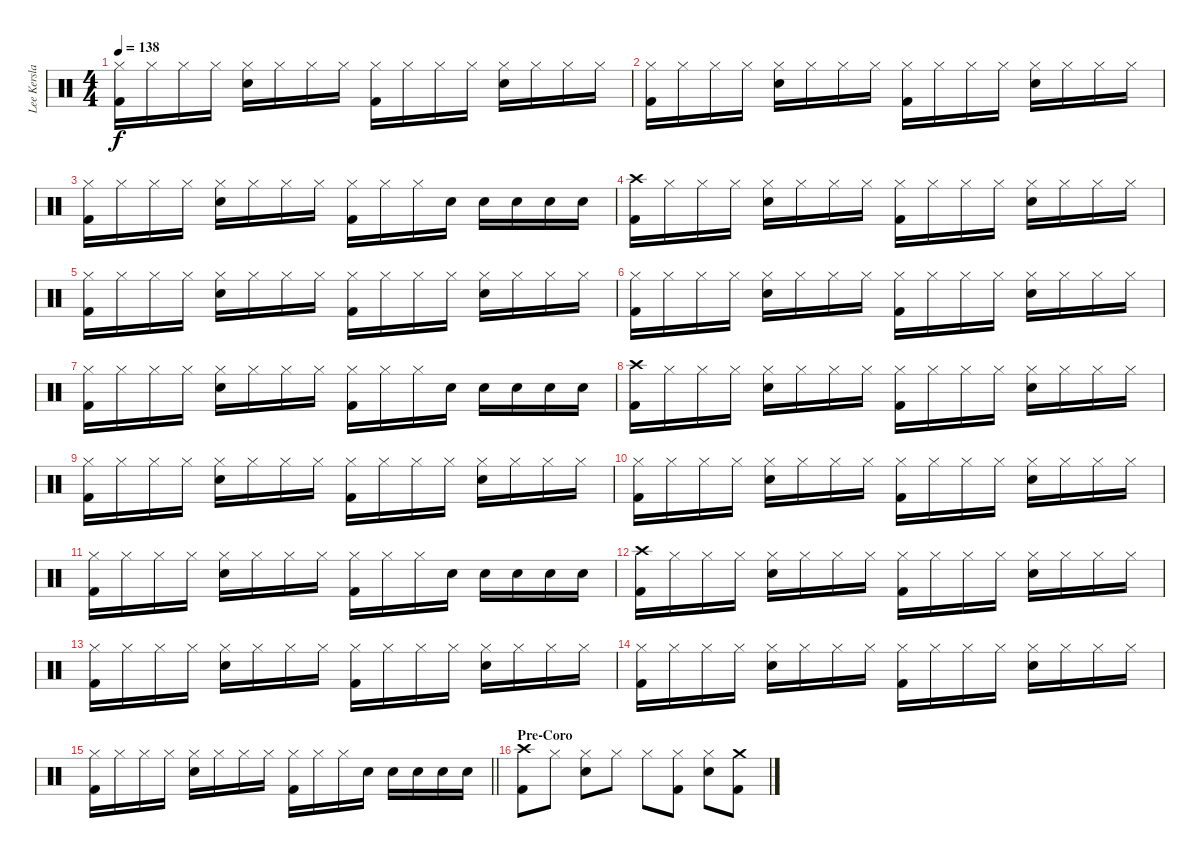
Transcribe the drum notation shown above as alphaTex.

\track ("Lee Kerslake" "Lee Kersla") {instrument percussion}
\staff {score}
\articulation defaults
\ts (4 4)
\tempo 138
\clef neutral
\ks c
("Hi-Hat (closed)" "Kick (hit) 2").16{dy f} "Hi-Hat (closed)".16 "Hi-Hat (closed)".16 "Hi-Hat (closed)".16 ("Hi-Hat (closed)" "Snare (hit) 2").16 "Hi-Hat (closed)".16 "Hi-Hat (closed)".16 "Hi-Hat (closed)".16 ("Hi-Hat (closed)" "Kick (hit) 2").16 "Hi-Hat (closed)".16 "Hi-Hat (closed)".16 "Hi-Hat (closed)".16 ("Hi-Hat (closed)" "Snare (hit) 2").16 "Hi-Hat (closed)".16 "Hi-Hat (closed)".16 "Hi-Hat (closed)".16 |
("Hi-Hat (closed)" "Kick (hit) 2").16 "Hi-Hat (closed)".16 "Hi-Hat (closed)".16 "Hi-Hat (closed)".16 ("Hi-Hat (closed)" "Snare (hit) 2").16 "Hi-Hat (closed)".16 "Hi-Hat (closed)".16 "Hi-Hat (closed)".16 ("Hi-Hat (closed)" "Kick (hit) 2").16 "Hi-Hat (closed)".16 "Hi-Hat (closed)".16 "Hi-Hat (closed)".16 ("Hi-Hat (closed)" "Snare (hit) 2").16 "Hi-Hat (closed)".16 "Hi-Hat (closed)".16 "Hi-Hat (closed)".16 |
("Hi-Hat (closed)" "Kick (hit) 2").16 "Hi-Hat (closed)".16 "Hi-Hat (closed)".16 "Hi-Hat (closed)".16 ("Hi-Hat (closed)" "Snare (hit) 2").16 "Hi-Hat (closed)".16 "Hi-Hat (closed)".16 "Hi-Hat (closed)".16 ("Hi-Hat (closed)" "Kick (hit) 2").16 "Hi-Hat (closed)".16 "Hi-Hat (closed)".16 "Snare (hit) 2".16 "Snare (hit) 2".16 "Snare (hit) 2".16 "Snare (hit) 2".16 "Snare (hit) 2".16 |
("Crash high (hit)" "Kick (hit) 2").16 "Hi-Hat (closed)".16 "Hi-Hat (closed)".16 "Hi-Hat (closed)".16 ("Hi-Hat (closed)" "Snare (hit) 2").16 "Hi-Hat (closed)".16 "Hi-Hat (closed)".16 "Hi-Hat (closed)".16 ("Hi-Hat (closed)" "Kick (hit) 2").16 "Hi-Hat (closed)".16 "Hi-Hat (closed)".16 "Hi-Hat (closed)".16 ("Hi-Hat (closed)" "Snare (hit) 2").16 "Hi-Hat (closed)".16 "Hi-Hat (closed)".16 "Hi-Hat (closed)".16 |
("Hi-Hat (closed)" "Kick (hit) 2").16 "Hi-Hat (closed)".16 "Hi-Hat (closed)".16 "Hi-Hat (closed)".16 ("Hi-Hat (closed)" "Snare (hit) 2").16 "Hi-Hat (closed)".16 "Hi-Hat (closed)".16 "Hi-Hat (closed)".16 ("Hi-Hat (closed)" "Kick (hit) 2").16 "Hi-Hat (closed)".16 "Hi-Hat (closed)".16 "Hi-Hat (closed)".16 ("Hi-Hat (closed)" "Snare (hit) 2").16 "Hi-Hat (closed)".16 "Hi-Hat (closed)".16 "Hi-Hat (closed)".16 |
("Hi-Hat (closed)" "Kick (hit) 2").16 "Hi-Hat (closed)".16 "Hi-Hat (closed)".16 "Hi-Hat (closed)".16 ("Hi-Hat (closed)" "Snare (hit) 2").16 "Hi-Hat (closed)".16 "Hi-Hat (closed)".16 "Hi-Hat (closed)".16 ("Hi-Hat (closed)" "Kick (hit) 2").16 "Hi-Hat (closed)".16 "Hi-Hat (closed)".16 "Hi-Hat (closed)".16 ("Hi-Hat (closed)" "Snare (hit) 2").16 "Hi-Hat (closed)".16 "Hi-Hat (closed)".16 "Hi-Hat (closed)".16 |
("Hi-Hat (closed)" "Kick (hit) 2").16 "Hi-Hat (closed)".16 "Hi-Hat (closed)".16 "Hi-Hat (closed)".16 ("Hi-Hat (closed)" "Snare (hit) 2").16 "Hi-Hat (closed)".16 "Hi-Hat (closed)".16 "Hi-Hat (closed)".16 ("Hi-Hat (closed)" "Kick (hit) 2").16 "Hi-Hat (closed)".16 "Hi-Hat (closed)".16 "Snare (hit) 2".16 "Snare (hit) 2".16 "Snare (hit) 2".16 "Snare (hit) 2".16 "Snare (hit) 2".16 |
("Crash high (hit)" "Kick (hit) 2").16 "Hi-Hat (closed)".16 "Hi-Hat (closed)".16 "Hi-Hat (closed)".16 ("Hi-Hat (closed)" "Snare (hit) 2").16 "Hi-Hat (closed)".16 "Hi-Hat (closed)".16 "Hi-Hat (closed)".16 ("Hi-Hat (closed)" "Kick (hit) 2").16 "Hi-Hat (closed)".16 "Hi-Hat (closed)".16 "Hi-Hat (closed)".16 ("Hi-Hat (closed)" "Snare (hit) 2").16 "Hi-Hat (closed)".16 "Hi-Hat (closed)".16 "Hi-Hat (closed)".16 |
("Hi-Hat (closed)" "Kick (hit) 2").16 "Hi-Hat (closed)".16 "Hi-Hat (closed)".16 "Hi-Hat (closed)".16 ("Hi-Hat (closed)" "Snare (hit) 2").16 "Hi-Hat (closed)".16 "Hi-Hat (closed)".16 "Hi-Hat (closed)".16 ("Hi-Hat (closed)" "Kick (hit) 2").16 "Hi-Hat (closed)".16 "Hi-Hat (closed)".16 "Hi-Hat (closed)".16 ("Hi-Hat (closed)" "Snare (hit) 2").16 "Hi-Hat (closed)".16 "Hi-Hat (closed)".16 "Hi-Hat (closed)".16 |
("Hi-Hat (closed)" "Kick (hit) 2").16 "Hi-Hat (closed)".16 "Hi-Hat (closed)".16 "Hi-Hat (closed)".16 ("Hi-Hat (closed)" "Snare (hit) 2").16 "Hi-Hat (closed)".16 "Hi-Hat (closed)".16 "Hi-Hat (closed)".16 ("Hi-Hat (closed)" "Kick (hit) 2").16 "Hi-Hat (closed)".16 "Hi-Hat (closed)".16 "Hi-Hat (closed)".16 ("Hi-Hat (closed)" "Snare (hit) 2").16 "Hi-Hat (closed)".16 "Hi-Hat (closed)".16 "Hi-Hat (closed)".16 |
("Hi-Hat (closed)" "Kick (hit) 2").16 "Hi-Hat (closed)".16 "Hi-Hat (closed)".16 "Hi-Hat (closed)".16 ("Hi-Hat (closed)" "Snare (hit) 2").16 "Hi-Hat (closed)".16 "Hi-Hat (closed)".16 "Hi-Hat (closed)".16 ("Hi-Hat (closed)" "Kick (hit) 2").16 "Hi-Hat (closed)".16 "Hi-Hat (closed)".16 "Snare (hit) 2".16 "Snare (hit) 2".16 "Snare (hit) 2".16 "Snare (hit) 2".16 "Snare (hit) 2".16 |
("Crash high (hit)" "Kick (hit) 2").16 "Hi-Hat (closed)".16 "Hi-Hat (closed)".16 "Hi-Hat (closed)".16 ("Hi-Hat (closed)" "Snare (hit) 2").16 "Hi-Hat (closed)".16 "Hi-Hat (closed)".16 "Hi-Hat (closed)".16 ("Hi-Hat (closed)" "Kick (hit) 2").16 "Hi-Hat (closed)".16 "Hi-Hat (closed)".16 "Hi-Hat (closed)".16 ("Hi-Hat (closed)" "Snare (hit) 2").16 "Hi-Hat (closed)".16 "Hi-Hat (closed)".16 "Hi-Hat (closed)".16 |
("Hi-Hat (closed)" "Kick (hit) 2").16 "Hi-Hat (closed)".16 "Hi-Hat (closed)".16 "Hi-Hat (closed)".16 ("Hi-Hat (closed)" "Snare (hit) 2").16 "Hi-Hat (closed)".16 "Hi-Hat (closed)".16 "Hi-Hat (closed)".16 ("Hi-Hat (closed)" "Kick (hit) 2").16 "Hi-Hat (closed)".16 "Hi-Hat (closed)".16 "Hi-Hat (closed)".16 ("Hi-Hat (closed)" "Snare (hit) 2").16 "Hi-Hat (closed)".16 "Hi-Hat (closed)".16 "Hi-Hat (closed)".16 |
("Hi-Hat (closed)" "Kick (hit) 2").16 "Hi-Hat (closed)".16 "Hi-Hat (closed)".16 "Hi-Hat (closed)".16 ("Hi-Hat (closed)" "Snare (hit) 2").16 "Hi-Hat (closed)".16 "Hi-Hat (closed)".16 "Hi-Hat (closed)".16 ("Hi-Hat (closed)" "Kick (hit) 2").16 "Hi-Hat (closed)".16 "Hi-Hat (closed)".16 "Hi-Hat (closed)".16 ("Hi-Hat (closed)" "Snare (hit) 2").16 "Hi-Hat (closed)".16 "Hi-Hat (closed)".16 "Hi-Hat (closed)".16 |
\barLineRight lightlight
("Hi-Hat (closed)" "Kick (hit) 2").16 "Hi-Hat (closed)".16 "Hi-Hat (closed)".16 "Hi-Hat (closed)".16 ("Hi-Hat (closed)" "Snare (hit) 2").16 "Hi-Hat (closed)".16 "Hi-Hat (closed)".16 "Hi-Hat (closed)".16 ("Hi-Hat (closed)" "Kick (hit) 2").16 "Hi-Hat (closed)".16 "Hi-Hat (closed)".16 "Snare (hit) 2".16 "Snare (hit) 2".16 "Snare (hit) 2".16 "Snare (hit) 2".16 "Snare (hit) 2".16 |
\section ("" "Pre-Coro")
("Crash high (hit)" "Kick (hit) 2").8 "Hi-Hat (closed)".8 ("Hi-Hat (closed)" "Snare (hit) 2").8 "Hi-Hat (closed)".8 "Hi-Hat (closed)".8 ("Hi-Hat (closed)" "Kick (hit) 2").8 ("Hi-Hat (closed)" "Snare (hit) 2").8 ("Crash medium (hit)" "Kick (hit) 2").8
